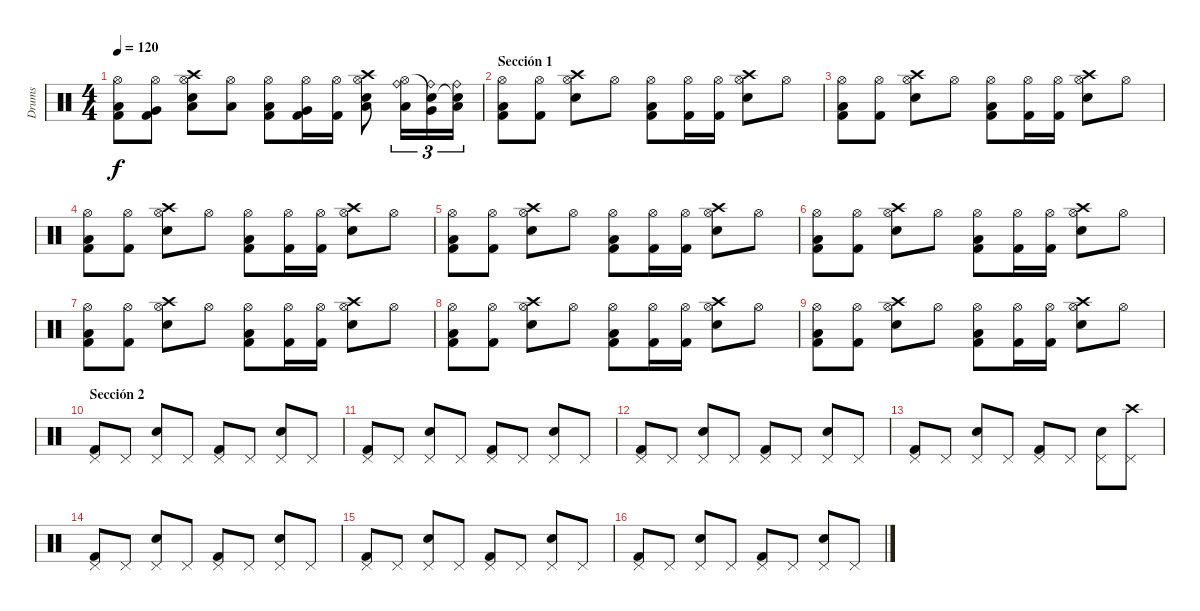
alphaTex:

\track ("Drums" "Drums") {instrument percussion}
\staff {score}
\articulation defaults
\ts (4 4)
\tempo 120
\clef neutral
\ks c
("Hi-Hat (open)" "Low Tom (hit)" "Kick (hit) 2").8{dy f} ("Hi-Hat (open)" "Very Low Tom (hit)" "Kick (hit) 2").8 ("Hi-Hat (open)" "Crash high (hit)" "Low Floor Tom (hit)" "Snare (hit) 2").8 ("Hi-Hat (open)" "Low Tom (hit)").8 ("Hi-Hat (open)" "Low Tom (hit)" "Kick (hit) 2").8 ("Hi-Hat (open)" "Very Low Tom (hit)" "Kick (hit) 2").16 ("Hi-Hat (open)" "Kick (hit) 2").16 ("Hi-Hat (open)" "Crash high (hit)" "Low Floor Tom (hit)" "Snare (hit) 2").8 ("Hi-Hat (open)" "Ride (bell)" "Low Tom (hit)").16{tu (3 2)} ("Snare (hit)"{t} "Ride (bell)" "Very Low Tom (hit)").16{tu (3 2)} ("Snare (hit)"{t} "Ride (bell)" "Low Floor Tom (hit)").16{tu (3 2)} |
\section ("" "Sección 1")
("Hi-Hat (open)" "Low Tom (hit)" "Kick (hit) 2").8 ("Hi-Hat (open)" "Kick (hit) 2").8 ("Hi-Hat (open)" "Crash high (hit)" "Snare (hit) 2").8 "Hi-Hat (open)".8 ("Hi-Hat (open)" "Low Tom (hit)" "Kick (hit) 2").8 ("Hi-Hat (open)" "Kick (hit) 2").16 ("Hi-Hat (open)" "Kick (hit) 2").16 ("Hi-Hat (open)" "Crash high (hit)" "Snare (hit) 2").8 "Hi-Hat (open)".8 |
("Hi-Hat (open)" "Low Tom (hit)" "Kick (hit) 2").8 ("Hi-Hat (open)" "Kick (hit) 2").8 ("Hi-Hat (open)" "Crash high (hit)" "Snare (hit) 2").8 "Hi-Hat (open)".8 ("Hi-Hat (open)" "Low Tom (hit)" "Kick (hit) 2").8 ("Hi-Hat (open)" "Kick (hit) 2").16 ("Hi-Hat (open)" "Kick (hit) 2").16 ("Hi-Hat (open)" "Crash high (hit)" "Snare (hit) 2").8 "Hi-Hat (open)".8 |
("Hi-Hat (open)" "Low Tom (hit)" "Kick (hit) 2").8 ("Hi-Hat (open)" "Kick (hit) 2").8 ("Hi-Hat (open)" "Crash high (hit)" "Snare (hit) 2").8 "Hi-Hat (open)".8 ("Hi-Hat (open)" "Low Tom (hit)" "Kick (hit) 2").8 ("Hi-Hat (open)" "Kick (hit) 2").16 ("Hi-Hat (open)" "Kick (hit) 2").16 ("Hi-Hat (open)" "Crash high (hit)" "Snare (hit) 2").8 "Hi-Hat (open)".8 |
("Hi-Hat (open)" "Low Tom (hit)" "Kick (hit) 2").8 ("Hi-Hat (open)" "Kick (hit) 2").8 ("Hi-Hat (open)" "Crash high (hit)" "Snare (hit) 2").8 "Hi-Hat (open)".8 ("Hi-Hat (open)" "Low Tom (hit)" "Kick (hit) 2").8 ("Hi-Hat (open)" "Kick (hit) 2").16 ("Hi-Hat (open)" "Kick (hit) 2").16 ("Hi-Hat (open)" "Crash high (hit)" "Snare (hit) 2").8 "Hi-Hat (open)".8 |
("Hi-Hat (open)" "Low Tom (hit)" "Kick (hit) 2").8 ("Hi-Hat (open)" "Kick (hit) 2").8 ("Hi-Hat (open)" "Crash high (hit)" "Snare (hit) 2").8 "Hi-Hat (open)".8 ("Hi-Hat (open)" "Low Tom (hit)" "Kick (hit) 2").8 ("Hi-Hat (open)" "Kick (hit) 2").16 ("Hi-Hat (open)" "Kick (hit) 2").16 ("Hi-Hat (open)" "Crash high (hit)" "Snare (hit) 2").8 "Hi-Hat (open)".8 |
("Hi-Hat (open)" "Low Tom (hit)" "Kick (hit) 2").8 ("Hi-Hat (open)" "Kick (hit) 2").8 ("Hi-Hat (open)" "Crash high (hit)" "Snare (hit) 2").8 "Hi-Hat (open)".8 ("Hi-Hat (open)" "Low Tom (hit)" "Kick (hit) 2").8 ("Hi-Hat (open)" "Kick (hit) 2").16 ("Hi-Hat (open)" "Kick (hit) 2").16 ("Hi-Hat (open)" "Crash high (hit)" "Snare (hit) 2").8 "Hi-Hat (open)".8 |
("Hi-Hat (open)" "Low Tom (hit)" "Kick (hit) 2").8 ("Hi-Hat (open)" "Kick (hit) 2").8 ("Hi-Hat (open)" "Crash high (hit)" "Snare (hit) 2").8 "Hi-Hat (open)".8 ("Hi-Hat (open)" "Low Tom (hit)" "Kick (hit) 2").8 ("Hi-Hat (open)" "Kick (hit) 2").16 ("Hi-Hat (open)" "Kick (hit) 2").16 ("Hi-Hat (open)" "Crash high (hit)" "Snare (hit) 2").8 "Hi-Hat (open)".8 |
("Hi-Hat (open)" "Low Tom (hit)" "Kick (hit) 2").8 ("Hi-Hat (open)" "Kick (hit) 2").8 ("Hi-Hat (open)" "Crash high (hit)" "Snare (hit) 2").8 "Hi-Hat (open)".8 ("Hi-Hat (open)" "Low Tom (hit)" "Kick (hit) 2").8 ("Hi-Hat (open)" "Kick (hit) 2").16 ("Hi-Hat (open)" "Kick (hit) 2").16 ("Hi-Hat (open)" "Crash high (hit)" "Snare (hit) 2").8 "Hi-Hat (open)".8 |
\section ("" "Sección 2")
("Pedal Hi-Hat (hit)" "Kick (hit) 2").8 "Pedal Hi-Hat (hit)".8 ("Pedal Hi-Hat (hit)" "Snare (hit) 2").8 "Pedal Hi-Hat (hit)".8 ("Pedal Hi-Hat (hit)" "Kick (hit) 2").8 "Pedal Hi-Hat (hit)".8 ("Pedal Hi-Hat (hit)" "Snare (hit) 2").8 "Pedal Hi-Hat (hit)".8 |
("Pedal Hi-Hat (hit)" "Kick (hit) 2").8 "Pedal Hi-Hat (hit)".8 ("Pedal Hi-Hat (hit)" "Snare (hit) 2").8 "Pedal Hi-Hat (hit)".8 ("Pedal Hi-Hat (hit)" "Kick (hit) 2").8 "Pedal Hi-Hat (hit)".8 ("Pedal Hi-Hat (hit)" "Snare (hit) 2").8 "Pedal Hi-Hat (hit)".8 |
("Pedal Hi-Hat (hit)" "Kick (hit) 2").8 "Pedal Hi-Hat (hit)".8 ("Pedal Hi-Hat (hit)" "Snare (hit) 2").8 "Pedal Hi-Hat (hit)".8 ("Pedal Hi-Hat (hit)" "Kick (hit) 2").8 "Pedal Hi-Hat (hit)".8 ("Pedal Hi-Hat (hit)" "Snare (hit) 2").8 "Pedal Hi-Hat (hit)".8 |
("Pedal Hi-Hat (hit)" "Kick (hit) 2").8 "Pedal Hi-Hat (hit)".8 ("Pedal Hi-Hat (hit)" "Snare (hit) 2").8 "Pedal Hi-Hat (hit)".8 ("Pedal Hi-Hat (hit)" "Kick (hit) 2").8 "Pedal Hi-Hat (hit)".8 ("Pedal Hi-Hat (hit)" "Snare (hit) 2").8 ("Pedal Hi-Hat (hit)" "Crash high (hit)").8 |
("Pedal Hi-Hat (hit)" "Kick (hit) 2").8 "Pedal Hi-Hat (hit)".8 ("Pedal Hi-Hat (hit)" "Snare (hit) 2").8 "Pedal Hi-Hat (hit)".8 ("Pedal Hi-Hat (hit)" "Kick (hit) 2").8 "Pedal Hi-Hat (hit)".8 ("Pedal Hi-Hat (hit)" "Snare (hit) 2").8 "Pedal Hi-Hat (hit)".8 |
("Pedal Hi-Hat (hit)" "Kick (hit) 2").8 "Pedal Hi-Hat (hit)".8 ("Pedal Hi-Hat (hit)" "Snare (hit) 2").8 "Pedal Hi-Hat (hit)".8 ("Pedal Hi-Hat (hit)" "Kick (hit) 2").8 "Pedal Hi-Hat (hit)".8 ("Pedal Hi-Hat (hit)" "Snare (hit) 2").8 "Pedal Hi-Hat (hit)".8 |
("Pedal Hi-Hat (hit)" "Kick (hit) 2").8 "Pedal Hi-Hat (hit)".8 ("Pedal Hi-Hat (hit)" "Snare (hit) 2").8 "Pedal Hi-Hat (hit)".8 ("Pedal Hi-Hat (hit)" "Kick (hit) 2").8 "Pedal Hi-Hat (hit)".8 ("Pedal Hi-Hat (hit)" "Snare (hit) 2").8 "Pedal Hi-Hat (hit)".8
